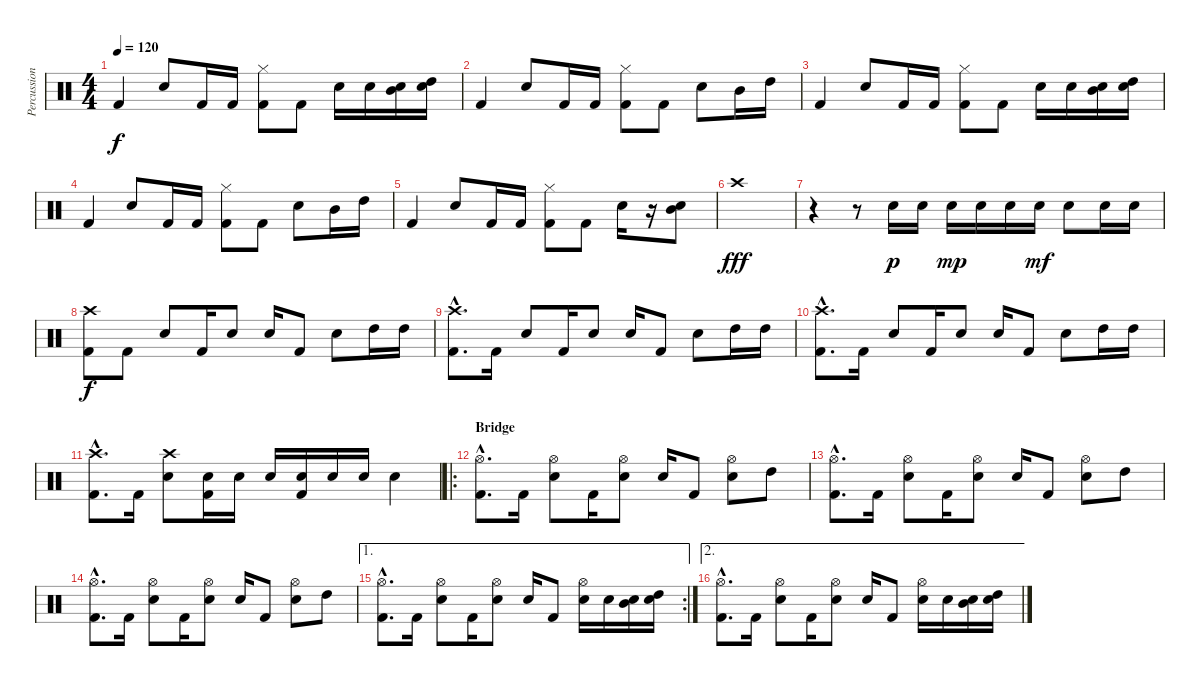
\track ("Percussion" "Percussion") {instrument percussion}
\staff {score}
\articulation defaults
\ts (4 4)
\tempo 120
\clef neutral
\ks c "Kick (hit) 2".4{dy f} "Electric Snare (hit)".8 "Kick (hit) 2".16 "Kick (hit) 2".16
("Hi-Hat (closed)" "Kick (hit) 2").8 "Kick (hit) 2".8 "Electric Snare (hit)".16 "Electric Snare (hit)".16 ("Electric Snare (hit)" "Mid Tom (hit)").16 ("Electric Snare (hit)" "High Tom (hit)").16 |
"Kick (hit) 2".4 "Electric Snare (hit)".8 "Kick (hit) 2".16 "Kick (hit) 2".16 ("Hi-Hat (closed)" "Kick (hit) 2").8 "Kick (hit) 2".8 "Electric Snare (hit)".8 "Mid Tom (hit)".16 "High Tom (hit)".16 |
"Kick (hit) 2".4 "Electric Snare (hit)".8 "Kick (hit) 2".16 "Kick (hit) 2".16 ("Hi-Hat (closed)" "Kick (hit) 2").8 "Kick (hit) 2".8 "Electric Snare (hit)".16 "Electric Snare (hit)".16 ("Electric Snare (hit)" "Mid Tom (hit)").16 ("Electric Snare (hit)" "High Tom (hit)").16 |
"Kick (hit) 2".4 "Electric Snare (hit)".8 "Kick (hit) 2".16 "Kick (hit) 2".16 ("Hi-Hat (closed)" "Kick (hit) 2").8 "Kick (hit) 2".8 "Electric Snare (hit)".8 "Mid Tom (hit)".16 "High Tom (hit)".16 |
"Kick (hit) 2".4 "Electric Snare (hit)".8 "Kick (hit) 2".16 "Kick (hit) 2".16 ("Hi-Hat (closed)" "Kick (hit) 2").8 "Kick (hit) 2".8 "Electric Snare (hit)".16 r.16 ("Electric Snare (hit)" "Mid Tom (hit)").8 |
"Crash high (hit)".1{dy fff} |
r.4 r.8 "Electric Snare (hit)".16{dy p} "Electric Snare (hit)".16 "Snare (hit) 2".16{dy mp} "Snare (hit) 2".16 "Snare (hit) 2".16 "Snare (hit) 2".16{dy mf} "Snare (hit) 2".8 "Electric Snare (hit)".16 "Electric Snare (hit)".16 |
("Crash high (hit)" "Kick (hit) 2").8{dy f} "Kick (hit) 2".8 "Electric Snare (hit)".8 "Kick (hit) 2".16 "Electric Snare (hit)".8 "Electric Snare (hit)".16 "Kick (hit) 2".8 "Electric Snare (hit)".8 "High Tom (hit)".16 "High Tom (hit)".16 |
("Crash high (hit)"{hac} "Kick (hit) 2"{hac}).8{d} "Kick (hit) 2".16 "Electric Snare (hit)".8 "Kick (hit) 2".16 "Electric Snare (hit)".8 "Electric Snare (hit)".16 "Kick (hit) 2".8 "Electric Snare (hit)".8 "High Tom (hit)".16 "High Tom (hit)".16 |
("Crash high (hit)"{hac} "Kick (hit) 2"{hac}).8{d} "Kick (hit) 2".16 "Electric Snare (hit)".8 "Kick (hit) 2".16 "Electric Snare (hit)".8 "Electric Snare (hit)".16 "Kick (hit) 2".8 "Electric Snare (hit)".8 "High Tom (hit)".16 "High Tom (hit)".16 |
("Crash high (hit)"{hac} "Kick (hit) 2"{hac}).8{d} "Kick (hit) 2".16 ("Crash high (hit)" "Electric Snare (hit)").8 ("Electric Snare (hit)" "Kick (hit) 2").16 "Electric Snare (hit)".16 "Electric Snare (hit)".16 ("Electric Snare (hit)" "Kick (hit) 2").16 "Electric Snare (hit)".16 "Electric Snare (hit)".16 "Electric Snare (hit)".4 |
\ro
\section ("" "Bridge")
("Hi-Hat (open)"{hac} "Kick (hit) 2"{hac}).8{d} "Kick (hit) 2".16 ("Hi-Hat (open)" "Electric Snare (hit)").8 "Kick (hit) 2".16 ("Hi-Hat (open)" "Electric Snare (hit)").8 "Electric Snare (hit)".16 "Kick (hit) 2".8 ("Hi-Hat (open)" "Electric Snare (hit)").8 "High Tom (hit)".8 |
("Hi-Hat (open)"{hac} "Kick (hit) 2"{hac}).8{d} "Kick (hit) 2".16 ("Hi-Hat (open)" "Electric Snare (hit)").8 "Kick (hit) 2".16 ("Hi-Hat (open)" "Electric Snare (hit)").8 "Electric Snare (hit)".16 "Kick (hit) 2".8 ("Hi-Hat (open)" "Electric Snare (hit)").8 "High Tom (hit)".8 |
("Hi-Hat (open)"{hac} "Kick (hit) 2"{hac}).8{d} "Kick (hit) 2".16 ("Hi-Hat (open)" "Electric Snare (hit)").8 "Kick (hit) 2".16 ("Hi-Hat (open)" "Electric Snare (hit)").8 "Electric Snare (hit)".16 "Kick (hit) 2".8 ("Hi-Hat (open)" "Electric Snare (hit)").8 "High Tom (hit)".8 |
\ae 1
\rc 2
("Hi-Hat (open)"{hac} "Kick (hit) 2"{hac}).8{d} "Kick (hit) 2".16 ("Hi-Hat (open)" "Electric Snare (hit)").8 "Kick (hit) 2".16 ("Hi-Hat (open)" "Electric Snare (hit)").8 "Electric Snare (hit)".16 "Kick (hit) 2".8 ("Hi-Hat (open)" "Electric Snare (hit)").16 "Electric Snare (hit)".16 ("Electric Snare (hit)" "Mid Tom (hit)").16 ("Electric Snare (hit)" "High Tom (hit)").16 |
\ae 2
("Hi-Hat (open)"{hac} "Kick (hit) 2"{hac}).8{d} "Kick (hit) 2".16 ("Hi-Hat (open)" "Electric Snare (hit)").8 "Kick (hit) 2".16 ("Hi-Hat (open)" "Electric Snare (hit)").8 "Electric Snare (hit)".16 "Kick (hit) 2".8 ("Hi-Hat (open)" "Electric Snare (hit)").16 "Electric Snare (hit)".16 ("Electric Snare (hit)" "Mid Tom (hit)").16 ("Electric Snare (hit)" "High Tom (hit)").16
